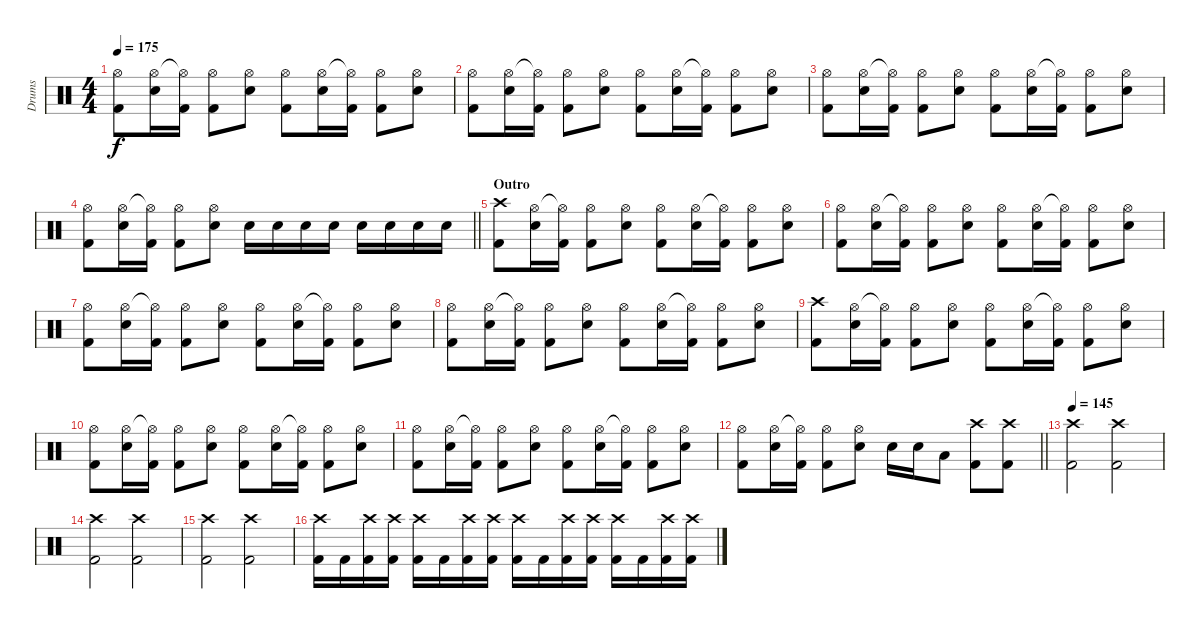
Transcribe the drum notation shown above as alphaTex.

\track ("Drums" "Drums") {instrument percussion}
\staff {score}
\articulation defaults
\ts (4 4)
\tempo 175
\clef neutral
\ks c
("Hi-Hat (open)" "Kick (hit) 2").8{dy f} ("Hi-Hat (open)" "Electric Snare (hit)").16 ("Hi-Hat (open)"{t} "Kick (hit) 2").16 ("Hi-Hat (open)" "Kick (hit) 2").8 ("Hi-Hat (open)" "Electric Snare (hit)").8 ("Hi-Hat (open)" "Kick (hit) 2").8 ("Hi-Hat (open)" "Electric Snare (hit)").16 ("Hi-Hat (open)"{t} "Kick (hit) 2").16 ("Hi-Hat (open)" "Kick (hit) 2").8 ("Hi-Hat (open)" "Electric Snare (hit)").8 |
("Hi-Hat (open)" "Kick (hit) 2").8 ("Hi-Hat (open)" "Electric Snare (hit)").16 ("Hi-Hat (open)"{t} "Kick (hit) 2").16 ("Hi-Hat (open)" "Kick (hit) 2").8 ("Hi-Hat (open)" "Electric Snare (hit)").8 ("Hi-Hat (open)" "Kick (hit) 2").8 ("Hi-Hat (open)" "Electric Snare (hit)").16 ("Hi-Hat (open)"{t} "Kick (hit) 2").16 ("Hi-Hat (open)" "Kick (hit) 2").8 ("Hi-Hat (open)" "Electric Snare (hit)").8 |
("Hi-Hat (open)" "Kick (hit) 2").8 ("Hi-Hat (open)" "Electric Snare (hit)").16 ("Hi-Hat (open)"{t} "Kick (hit) 2").16 ("Hi-Hat (open)" "Kick (hit) 2").8 ("Hi-Hat (open)" "Electric Snare (hit)").8 ("Hi-Hat (open)" "Kick (hit) 2").8 ("Hi-Hat (open)" "Electric Snare (hit)").16 ("Hi-Hat (open)"{t} "Kick (hit) 2").16 ("Hi-Hat (open)" "Kick (hit) 2").8 ("Hi-Hat (open)" "Electric Snare (hit)").8 |
\barLineRight lightlight
("Hi-Hat (open)" "Kick (hit) 2").8 ("Hi-Hat (open)" "Electric Snare (hit)").16 ("Hi-Hat (open)"{t} "Kick (hit) 2").16 ("Hi-Hat (open)" "Kick (hit) 2").8 ("Hi-Hat (open)" "Electric Snare (hit)").8 "Electric Snare (hit)".16 "Electric Snare (hit)".16 "Electric Snare (hit)".16 "Electric Snare (hit)".16 "Electric Snare (hit)".16 "Electric Snare (hit)".16 "Electric Snare (hit)".16 "Electric Snare (hit)".16 |
\section ("" "Outro")
("Crash high (hit)" "Kick (hit) 2").8 ("Hi-Hat (open)" "Electric Snare (hit)").16 ("Hi-Hat (open)"{t} "Kick (hit) 2").16 ("Hi-Hat (open)" "Kick (hit) 2").8 ("Hi-Hat (open)" "Electric Snare (hit)").8 ("Hi-Hat (open)" "Kick (hit) 2").8 ("Hi-Hat (open)" "Electric Snare (hit)").16 ("Hi-Hat (open)"{t} "Kick (hit) 2").16 ("Hi-Hat (open)" "Kick (hit) 2").8 ("Hi-Hat (open)" "Electric Snare (hit)").8 |
("Hi-Hat (open)" "Kick (hit) 2").8 ("Hi-Hat (open)" "Electric Snare (hit)").16 ("Hi-Hat (open)"{t} "Kick (hit) 2").16 ("Hi-Hat (open)" "Kick (hit) 2").8 ("Hi-Hat (open)" "Electric Snare (hit)").8 ("Hi-Hat (open)" "Kick (hit) 2").8 ("Hi-Hat (open)" "Electric Snare (hit)").16 ("Hi-Hat (open)"{t} "Kick (hit) 2").16 ("Hi-Hat (open)" "Kick (hit) 2").8 ("Hi-Hat (open)" "Electric Snare (hit)").8 |
("Hi-Hat (open)" "Kick (hit) 2").8 ("Hi-Hat (open)" "Electric Snare (hit)").16 ("Hi-Hat (open)"{t} "Kick (hit) 2").16 ("Hi-Hat (open)" "Kick (hit) 2").8 ("Hi-Hat (open)" "Electric Snare (hit)").8 ("Hi-Hat (open)" "Kick (hit) 2").8 ("Hi-Hat (open)" "Electric Snare (hit)").16 ("Hi-Hat (open)"{t} "Kick (hit) 2").16 ("Hi-Hat (open)" "Kick (hit) 2").8 ("Hi-Hat (open)" "Electric Snare (hit)").8 |
("Hi-Hat (open)" "Kick (hit) 2").8 ("Hi-Hat (open)" "Electric Snare (hit)").16 ("Hi-Hat (open)"{t} "Kick (hit) 2").16 ("Hi-Hat (open)" "Kick (hit) 2").8 ("Hi-Hat (open)" "Electric Snare (hit)").8 ("Hi-Hat (open)" "Kick (hit) 2").8 ("Hi-Hat (open)" "Electric Snare (hit)").16 ("Hi-Hat (open)"{t} "Kick (hit) 2").16 ("Hi-Hat (open)" "Kick (hit) 2").8 ("Hi-Hat (open)" "Electric Snare (hit)").8 |
("Crash high (hit)" "Kick (hit) 2").8 ("Hi-Hat (open)" "Electric Snare (hit)").16 ("Hi-Hat (open)"{t} "Kick (hit) 2").16 ("Hi-Hat (open)" "Kick (hit) 2").8 ("Hi-Hat (open)" "Electric Snare (hit)").8 ("Hi-Hat (open)" "Kick (hit) 2").8 ("Hi-Hat (open)" "Electric Snare (hit)").16 ("Hi-Hat (open)"{t} "Kick (hit) 2").16 ("Hi-Hat (open)" "Kick (hit) 2").8 ("Hi-Hat (open)" "Electric Snare (hit)").8 |
("Hi-Hat (open)" "Kick (hit) 2").8 ("Hi-Hat (open)" "Electric Snare (hit)").16 ("Hi-Hat (open)"{t} "Kick (hit) 2").16 ("Hi-Hat (open)" "Kick (hit) 2").8 ("Hi-Hat (open)" "Electric Snare (hit)").8 ("Hi-Hat (open)" "Kick (hit) 2").8 ("Hi-Hat (open)" "Electric Snare (hit)").16 ("Hi-Hat (open)"{t} "Kick (hit) 2").16 ("Hi-Hat (open)" "Kick (hit) 2").8 ("Hi-Hat (open)" "Electric Snare (hit)").8 |
("Hi-Hat (open)" "Kick (hit) 2").8 ("Hi-Hat (open)" "Electric Snare (hit)").16 ("Hi-Hat (open)"{t} "Kick (hit) 2").16 ("Hi-Hat (open)" "Kick (hit) 2").8 ("Hi-Hat (open)" "Electric Snare (hit)").8 ("Hi-Hat (open)" "Kick (hit) 2").8 ("Hi-Hat (open)" "Electric Snare (hit)").16 ("Hi-Hat (open)"{t} "Kick (hit) 2").16 ("Hi-Hat (open)" "Kick (hit) 2").8 ("Hi-Hat (open)" "Electric Snare (hit)").8 |
\barLineRight lightlight
("Hi-Hat (open)" "Kick (hit) 2").8 ("Hi-Hat (open)" "Electric Snare (hit)").16 ("Hi-Hat (open)"{t} "Kick (hit) 2").16 ("Hi-Hat (open)" "Kick (hit) 2").8 ("Hi-Hat (open)" "Electric Snare (hit)").8 "Electric Snare (hit)".16 "Electric Snare (hit)".16 "Low Tom (hit)".8 ("Crash high (hit)" "Kick (hit) 2").8 ("Crash high (hit)" "Kick (hit) 2").8 |
\tempo 145
("Crash high (hit)" "Kick (hit) 2").2 ("Crash high (hit)" "Kick (hit) 2").2 |
("Crash high (hit)" "Kick (hit) 2").2 ("Crash high (hit)" "Kick (hit) 2").2 |
("Crash high (hit)" "Kick (hit) 2").2 ("Crash high (hit)" "Kick (hit) 2").2 |
("Crash high (hit)" "Kick (hit) 2").16 "Kick (hit) 2".16 ("Crash high (hit)" "Kick (hit) 2").16 ("Crash high (hit)" "Kick (hit) 2").16 ("Crash high (hit)" "Kick (hit) 2").16 "Kick (hit) 2".16 ("Crash high (hit)" "Kick (hit) 2").16 ("Crash high (hit)" "Kick (hit) 2").16 ("Crash high (hit)" "Kick (hit) 2").16 "Kick (hit) 2".16 ("Crash high (hit)" "Kick (hit) 2").16 ("Crash high (hit)" "Kick (hit) 2").16 ("Crash high (hit)" "Kick (hit) 2").16 "Kick (hit) 2".16 ("Crash high (hit)" "Kick (hit) 2").16 ("Crash high (hit)" "Kick (hit) 2").16
